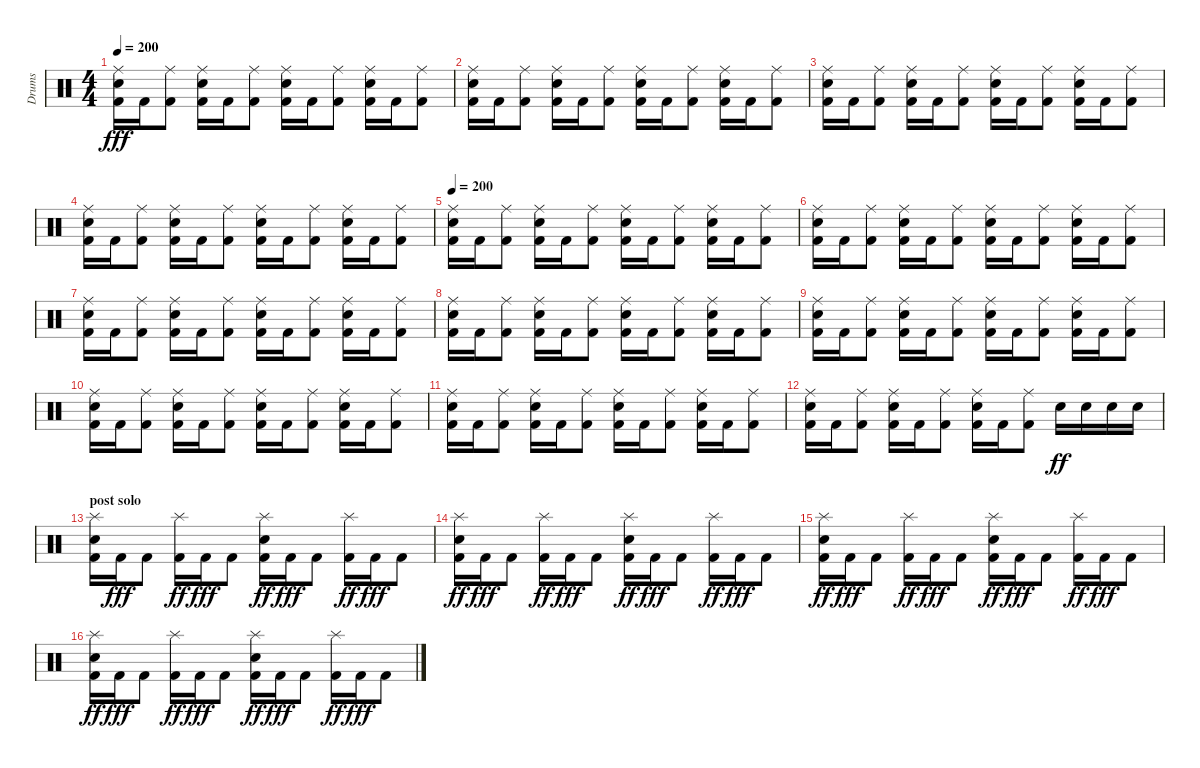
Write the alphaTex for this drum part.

\track ("Drums" "Drums") {instrument percussion}
\staff {score}
\articulation defaults
\ts (4 4)
\tempo 200
\clef neutral
\ks c
("Ride (middle)" "Electric Snare (hit)" "Kick (hit) 2").16{dy fff} "Kick (hit) 2".16 ("Ride (middle)" "Kick (hit) 2").8 ("Ride (middle)" "Electric Snare (hit)" "Kick (hit) 2").16 "Kick (hit) 2".16 ("Ride (middle)" "Kick (hit) 2").8 ("Ride (middle)" "Electric Snare (hit)" "Kick (hit) 2").16 "Kick (hit) 2".16 ("Ride (middle)" "Kick (hit) 2").8 ("Ride (middle)" "Electric Snare (hit)" "Kick (hit) 2").16 "Kick (hit) 2".16 ("Ride (middle)" "Kick (hit) 2").8 |
("Ride (middle)" "Electric Snare (hit)" "Kick (hit) 2").16 "Kick (hit) 2".16 ("Ride (middle)" "Kick (hit) 2").8 ("Ride (middle)" "Electric Snare (hit)" "Kick (hit) 2").16 "Kick (hit) 2".16 ("Ride (middle)" "Kick (hit) 2").8 ("Ride (middle)" "Electric Snare (hit)" "Kick (hit) 2").16 "Kick (hit) 2".16 ("Ride (middle)" "Kick (hit) 2").8 ("Ride (middle)" "Electric Snare (hit)" "Kick (hit) 2").16 "Kick (hit) 2".16 ("Ride (middle)" "Kick (hit) 2").8 |
("Ride (middle)" "Electric Snare (hit)" "Kick (hit) 2").16 "Kick (hit) 2".16 ("Ride (middle)" "Kick (hit) 2").8 ("Ride (middle)" "Electric Snare (hit)" "Kick (hit) 2").16 "Kick (hit) 2".16 ("Ride (middle)" "Kick (hit) 2").8 ("Ride (middle)" "Electric Snare (hit)" "Kick (hit) 2").16 "Kick (hit) 2".16 ("Ride (middle)" "Kick (hit) 2").8 ("Ride (middle)" "Electric Snare (hit)" "Kick (hit) 2").16 "Kick (hit) 2".16 ("Ride (middle)" "Kick (hit) 2").8 |
("Ride (middle)" "Electric Snare (hit)" "Kick (hit) 2").16 "Kick (hit) 2".16 ("Ride (middle)" "Kick (hit) 2").8 ("Ride (middle)" "Electric Snare (hit)" "Kick (hit) 2").16 "Kick (hit) 2".16 ("Ride (middle)" "Kick (hit) 2").8 ("Ride (middle)" "Electric Snare (hit)" "Kick (hit) 2").16 "Kick (hit) 2".16 ("Ride (middle)" "Kick (hit) 2").8 ("Ride (middle)" "Electric Snare (hit)" "Kick (hit) 2").16 "Kick (hit) 2".16 ("Ride (middle)" "Kick (hit) 2").8 |
\tempo 200
("Ride (middle)" "Electric Snare (hit)" "Kick (hit) 2").16 "Kick (hit) 2".16 ("Ride (middle)" "Kick (hit) 2").8 ("Ride (middle)" "Electric Snare (hit)" "Kick (hit) 2").16 "Kick (hit) 2".16 ("Ride (middle)" "Kick (hit) 2").8 ("Ride (middle)" "Electric Snare (hit)" "Kick (hit) 2").16 "Kick (hit) 2".16 ("Ride (middle)" "Kick (hit) 2").8 ("Ride (middle)" "Electric Snare (hit)" "Kick (hit) 2").16 "Kick (hit) 2".16 ("Ride (middle)" "Kick (hit) 2").8 |
("Ride (middle)" "Electric Snare (hit)" "Kick (hit) 2").16 "Kick (hit) 2".16 ("Ride (middle)" "Kick (hit) 2").8 ("Ride (middle)" "Electric Snare (hit)" "Kick (hit) 2").16 "Kick (hit) 2".16 ("Ride (middle)" "Kick (hit) 2").8 ("Ride (middle)" "Electric Snare (hit)" "Kick (hit) 2").16 "Kick (hit) 2".16 ("Ride (middle)" "Kick (hit) 2").8 ("Ride (middle)" "Electric Snare (hit)" "Kick (hit) 2").16 "Kick (hit) 2".16 ("Ride (middle)" "Kick (hit) 2").8 |
("Ride (middle)" "Electric Snare (hit)" "Kick (hit) 2").16 "Kick (hit) 2".16 ("Ride (middle)" "Kick (hit) 2").8 ("Ride (middle)" "Electric Snare (hit)" "Kick (hit) 2").16 "Kick (hit) 2".16 ("Ride (middle)" "Kick (hit) 2").8 ("Ride (middle)" "Electric Snare (hit)" "Kick (hit) 2").16 "Kick (hit) 2".16 ("Ride (middle)" "Kick (hit) 2").8 ("Ride (middle)" "Electric Snare (hit)" "Kick (hit) 2").16 "Kick (hit) 2".16 ("Ride (middle)" "Kick (hit) 2").8 |
("Ride (middle)" "Electric Snare (hit)" "Kick (hit) 2").16 "Kick (hit) 2".16 ("Ride (middle)" "Kick (hit) 2").8 ("Ride (middle)" "Electric Snare (hit)" "Kick (hit) 2").16 "Kick (hit) 2".16 ("Ride (middle)" "Kick (hit) 2").8 ("Ride (middle)" "Electric Snare (hit)" "Kick (hit) 2").16 "Kick (hit) 2".16 ("Ride (middle)" "Kick (hit) 2").8 ("Ride (middle)" "Electric Snare (hit)" "Kick (hit) 2").16 "Kick (hit) 2".16 ("Ride (middle)" "Kick (hit) 2").8 |
("Ride (middle)" "Electric Snare (hit)" "Kick (hit) 2").16 "Kick (hit) 2".16 ("Ride (middle)" "Kick (hit) 2").8 ("Ride (middle)" "Electric Snare (hit)" "Kick (hit) 2").16 "Kick (hit) 2".16 ("Ride (middle)" "Kick (hit) 2").8 ("Ride (middle)" "Electric Snare (hit)" "Kick (hit) 2").16 "Kick (hit) 2".16 ("Ride (middle)" "Kick (hit) 2").8 ("Ride (middle)" "Electric Snare (hit)" "Kick (hit) 2").16 "Kick (hit) 2".16 ("Ride (middle)" "Kick (hit) 2").8 |
("Ride (middle)" "Electric Snare (hit)" "Kick (hit) 2").16 "Kick (hit) 2".16 ("Ride (middle)" "Kick (hit) 2").8 ("Ride (middle)" "Electric Snare (hit)" "Kick (hit) 2").16 "Kick (hit) 2".16 ("Ride (middle)" "Kick (hit) 2").8 ("Ride (middle)" "Electric Snare (hit)" "Kick (hit) 2").16 "Kick (hit) 2".16 ("Ride (middle)" "Kick (hit) 2").8 ("Ride (middle)" "Electric Snare (hit)" "Kick (hit) 2").16 "Kick (hit) 2".16 ("Ride (middle)" "Kick (hit) 2").8 |
("Ride (middle)" "Electric Snare (hit)" "Kick (hit) 2").16 "Kick (hit) 2".16 ("Ride (middle)" "Kick (hit) 2").8 ("Ride (middle)" "Electric Snare (hit)" "Kick (hit) 2").16 "Kick (hit) 2".16 ("Ride (middle)" "Kick (hit) 2").8 ("Ride (middle)" "Electric Snare (hit)" "Kick (hit) 2").16 "Kick (hit) 2".16 ("Ride (middle)" "Kick (hit) 2").8 ("Ride (middle)" "Electric Snare (hit)" "Kick (hit) 2").16 "Kick (hit) 2".16 ("Ride (middle)" "Kick (hit) 2").8 |
("Ride (middle)" "Electric Snare (hit)" "Kick (hit) 2").16 "Kick (hit) 2".16 ("Ride (middle)" "Kick (hit) 2").8 ("Ride (middle)" "Electric Snare (hit)" "Kick (hit) 2").16 "Kick (hit) 2".16 ("Ride (middle)" "Kick (hit) 2").8 ("Ride (middle)" "Electric Snare (hit)" "Kick (hit) 2").16 "Kick (hit) 2".16 ("Ride (middle)" "Kick (hit) 2").8 "Electric Snare (hit)".16{dy ff} "Electric Snare (hit)".16 "Electric Snare (hit)".16 "Electric Snare (hit)".16 |
\section ("" "post solo")
("Kick (hit) 2" "Electric Snare (hit)" "Splash (hit)").16 "Kick (hit) 2".16{dy fff} "Kick (hit) 2".8 ("Kick (hit) 2" "Splash (hit)").16{dy ff} "Kick (hit) 2".16{dy fff} "Kick (hit) 2".8 ("Kick (hit) 2" "Electric Snare (hit)" "Splash (hit)").16{dy ff} "Kick (hit) 2".16{dy fff} "Kick (hit) 2".8 ("Kick (hit) 2" "Splash (hit)").16{dy ff} "Kick (hit) 2".16{dy fff} "Kick (hit) 2".8 |
("Kick (hit) 2" "Electric Snare (hit)" "Splash (hit)").16{dy ff} "Kick (hit) 2".16{dy fff} "Kick (hit) 2".8 ("Kick (hit) 2" "Splash (hit)").16{dy ff} "Kick (hit) 2".16{dy fff} "Kick (hit) 2".8 ("Kick (hit) 2" "Electric Snare (hit)" "Splash (hit)").16{dy ff} "Kick (hit) 2".16{dy fff} "Kick (hit) 2".8 ("Kick (hit) 2" "Splash (hit)").16{dy ff} "Kick (hit) 2".16{dy fff} "Kick (hit) 2".8 |
("Kick (hit) 2" "Electric Snare (hit)" "Splash (hit)").16{dy ff} "Kick (hit) 2".16{dy fff} "Kick (hit) 2".8 ("Kick (hit) 2" "Splash (hit)").16{dy ff} "Kick (hit) 2".16{dy fff} "Kick (hit) 2".8 ("Kick (hit) 2" "Electric Snare (hit)" "Splash (hit)").16{dy ff} "Kick (hit) 2".16{dy fff} "Kick (hit) 2".8 ("Kick (hit) 2" "Splash (hit)").16{dy ff} "Kick (hit) 2".16{dy fff} "Kick (hit) 2".8 |
("Kick (hit) 2" "Electric Snare (hit)" "Splash (hit)").16{dy ff} "Kick (hit) 2".16{dy fff} "Kick (hit) 2".8 ("Kick (hit) 2" "Splash (hit)").16{dy ff} "Kick (hit) 2".16{dy fff} "Kick (hit) 2".8 ("Kick (hit) 2" "Electric Snare (hit)" "Splash (hit)").16{dy ff} "Kick (hit) 2".16{dy fff} "Kick (hit) 2".8 ("Kick (hit) 2" "Splash (hit)").16{dy ff} "Kick (hit) 2".16{dy fff} "Kick (hit) 2".8
